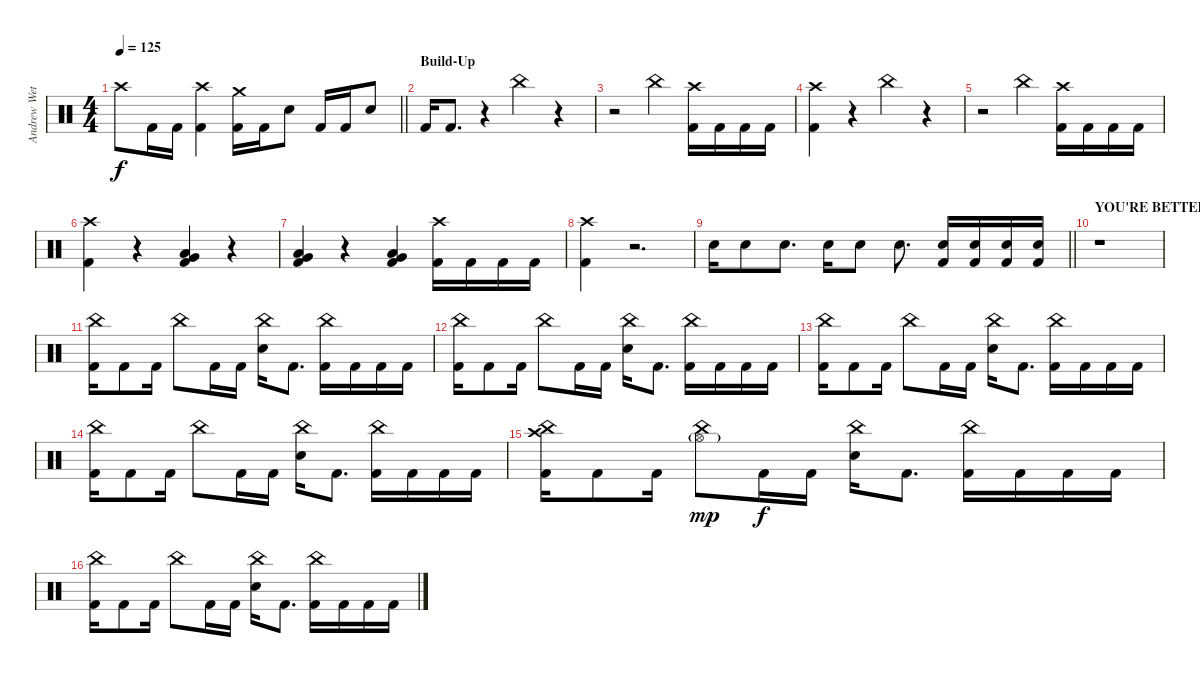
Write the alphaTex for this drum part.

\track ("Andrew Wetzel" "Andrew Wet") {instrument percussion}
\staff {score}
\articulation defaults
\ts (4 4)
\tempo 125
\clef neutral
\barLineRight lightlight
\ks c "Crash high (hit)".8{dy f} "Kick (hit) 2".16 "Kick (hit) 2".16
("Crash high (hit)" "Kick (hit) 2").4 ("Crash medium (hit)" "Kick (hit) 2").16 "Kick (hit) 2".16 "Snare (hit) 2".8 "Kick (hit) 2".16 "Kick (hit) 2".16 "Snare (hit) 2".8 |
\section ("" "Build-Up")
"Kick (hit) 2".16 "Kick (hit) 2".8{d} r.4 "China (hit)".4 r.4 |
r.2 "China (hit)".4 ("Crash high (hit)" "Kick (hit) 2").16 "Kick (hit) 2".16 "Kick (hit) 2".16 "Kick (hit) 2".16 |
("Crash high (hit)" "Kick (hit) 2").4 r.4 "China (hit)".4 r.4 |
r.2 "China (hit)".4 ("Crash high (hit)" "Kick (hit) 2").16 "Kick (hit) 2".16 "Kick (hit) 2".16 "Kick (hit) 2".16 |
("Crash high (hit)" "Kick (hit) 2").4 r.4 ("Very Low Tom (hit)" "Low Floor Tom (hit)" "Kick (hit) 2").4 r.4 |
("Very Low Tom (hit)" "Low Floor Tom (hit)" "Kick (hit) 2").4 r.4 ("Very Low Tom (hit)" "Low Floor Tom (hit)" "Kick (hit) 2").4 ("Crash high (hit)" "Kick (hit) 2").16 "Kick (hit) 2".16 "Kick (hit) 2".16 "Kick (hit) 2".16 |
("Crash high (hit)" "Kick (hit) 2").4 r.2{d} |
\barLineRight lightlight "Snare (hit) 2".16{balance 13} "Snare (hit) 2".8 "Snare (hit) 2".8{d} "Snare (hit) 2".16{balance 3} "Snare (hit) 2".8 "Snare (hit) 2".8{d}
("Snare (hit) 2" "Kick (hit) 2").16{balance 8} ("Snare (hit) 2" "Kick (hit) 2").16 ("Snare (hit) 2" "Kick (hit) 2").16 ("Snare (hit) 2" "Kick (hit) 2").16 |
\section ("" "YOU'RE BETTER OFF DEAD!")
r.1 |
("China (hit)" "Kick (hit) 2").16 "Kick (hit) 2".8 "Kick (hit) 2".16 "China (hit)".8 "Kick (hit) 2".16 "Kick (hit) 2".16 ("China (hit)" "Snare (hit) 2").16 "Kick (hit) 2".8{d} ("China (hit)" "Kick (hit) 2").16 "Kick (hit) 2".16 "Kick (hit) 2".16 "Kick (hit) 2".16 |
("China (hit)" "Kick (hit) 2").16 "Kick (hit) 2".8 "Kick (hit) 2".16 "China (hit)".8 "Kick (hit) 2".16 "Kick (hit) 2".16 ("China (hit)" "Snare (hit) 2").16 "Kick (hit) 2".8{d} ("China (hit)" "Kick (hit) 2").16 "Kick (hit) 2".16 "Kick (hit) 2".16 "Kick (hit) 2".16 |
("China (hit)" "Kick (hit) 2").16 "Kick (hit) 2".8 "Kick (hit) 2".16 "China (hit)".8 "Kick (hit) 2".16 "Kick (hit) 2".16 ("China (hit)" "Snare (hit) 2").16 "Kick (hit) 2".8{d} ("China (hit)" "Kick (hit) 2").16 "Kick (hit) 2".16 "Kick (hit) 2".16 "Kick (hit) 2".16 |
("China (hit)" "Kick (hit) 2").16 "Kick (hit) 2".8 "Kick (hit) 2".16 "China (hit)".8 "Kick (hit) 2".16 "Kick (hit) 2".16 ("China (hit)" "Snare (hit) 2").16 "Kick (hit) 2".8{d} ("China (hit)" "Kick (hit) 2").16 "Kick (hit) 2".16 "Kick (hit) 2".16 "Kick (hit) 2".16 |
("China (hit)" "Crash high (hit)" "Kick (hit) 2").16 "Kick (hit) 2".8 "Kick (hit) 2".16 ("China (hit)" "Hi-Hat (open)"{g}).8{dy mp} "Kick (hit) 2".16{dy f} "Kick (hit) 2".16 ("China (hit)" "Snare (hit) 2").16 "Kick (hit) 2".8{d} ("China (hit)" "Kick (hit) 2").16 "Kick (hit) 2".16 "Kick (hit) 2".16 "Kick (hit) 2".16 |
("China (hit)" "Kick (hit) 2").16 "Kick (hit) 2".8 "Kick (hit) 2".16 "China (hit)".8 "Kick (hit) 2".16 "Kick (hit) 2".16 ("China (hit)" "Snare (hit) 2").16 "Kick (hit) 2".8{d} ("China (hit)" "Kick (hit) 2").16 "Kick (hit) 2".16 "Kick (hit) 2".16 "Kick (hit) 2".16
